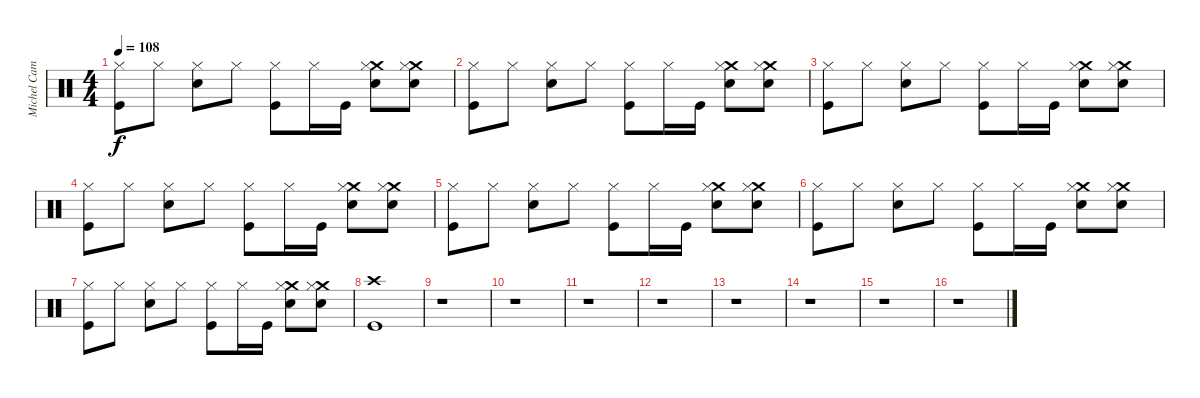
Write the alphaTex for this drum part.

\track ("Michel Camiade" "Michel Cam") {instrument percussion}
\staff {score}
\articulation defaults
\ts (4 4)
\tempo 108
\clef neutral
\ks c
("Hi-Hat (closed)" "Kick (hit)").8{dy f} "Hi-Hat (closed)".8 ("Hi-Hat (closed)" "Snare (hit) 2").8 "Hi-Hat (closed)".8 ("Hi-Hat (closed)" "Kick (hit)").8 "Hi-Hat (closed)".16 "Kick (hit)".16 ("Crash medium (hit)" "Hi-Hat (closed)" "Snare (hit) 2").8 ("Crash medium (hit)" "Hi-Hat (closed)" "Snare (hit) 2").8 |
("Hi-Hat (closed)" "Kick (hit)").8 "Hi-Hat (closed)".8 ("Hi-Hat (closed)" "Snare (hit) 2").8 "Hi-Hat (closed)".8 ("Hi-Hat (closed)" "Kick (hit)").8 "Hi-Hat (closed)".16 "Kick (hit)".16 ("Crash medium (hit)" "Hi-Hat (closed)" "Snare (hit) 2").8 ("Crash medium (hit)" "Hi-Hat (closed)" "Snare (hit) 2").8 |
("Hi-Hat (closed)" "Kick (hit)").8 "Hi-Hat (closed)".8 ("Hi-Hat (closed)" "Snare (hit) 2").8 "Hi-Hat (closed)".8 ("Hi-Hat (closed)" "Kick (hit)").8 "Hi-Hat (closed)".16 "Kick (hit)".16 ("Crash medium (hit)" "Hi-Hat (closed)" "Snare (hit) 2").8 ("Crash medium (hit)" "Hi-Hat (closed)" "Snare (hit) 2").8 |
("Hi-Hat (closed)" "Kick (hit)").8 "Hi-Hat (closed)".8 ("Hi-Hat (closed)" "Snare (hit) 2").8 "Hi-Hat (closed)".8 ("Hi-Hat (closed)" "Kick (hit)").8 "Hi-Hat (closed)".16 "Kick (hit)".16 ("Crash medium (hit)" "Hi-Hat (closed)" "Snare (hit) 2").8 ("Crash medium (hit)" "Hi-Hat (closed)" "Snare (hit) 2").8 |
("Hi-Hat (closed)" "Kick (hit)").8 "Hi-Hat (closed)".8 ("Hi-Hat (closed)" "Snare (hit) 2").8 "Hi-Hat (closed)".8 ("Hi-Hat (closed)" "Kick (hit)").8 "Hi-Hat (closed)".16 "Kick (hit)".16 ("Crash medium (hit)" "Hi-Hat (closed)" "Snare (hit) 2").8 ("Crash medium (hit)" "Hi-Hat (closed)" "Snare (hit) 2").8 |
("Hi-Hat (closed)" "Kick (hit)").8 "Hi-Hat (closed)".8 ("Hi-Hat (closed)" "Snare (hit) 2").8 "Hi-Hat (closed)".8 ("Hi-Hat (closed)" "Kick (hit)").8 "Hi-Hat (closed)".16 "Kick (hit)".16 ("Crash medium (hit)" "Hi-Hat (closed)" "Snare (hit) 2").8 ("Crash medium (hit)" "Hi-Hat (closed)" "Snare (hit) 2").8 |
("Hi-Hat (closed)" "Kick (hit)").8 "Hi-Hat (closed)".8 ("Hi-Hat (closed)" "Snare (hit) 2").8 "Hi-Hat (closed)".8 ("Hi-Hat (closed)" "Kick (hit)").8 "Hi-Hat (closed)".16 "Kick (hit)".16 ("Crash medium (hit)" "Hi-Hat (closed)" "Snare (hit) 2").8 ("Crash medium (hit)" "Hi-Hat (closed)" "Snare (hit) 2").8 |
("Crash high (hit)" "Kick (hit)").1 |
r.1 |
r.1 |
r.1 |
r.1 |
r.1 |
r.1 |
r.1 |
r.1
